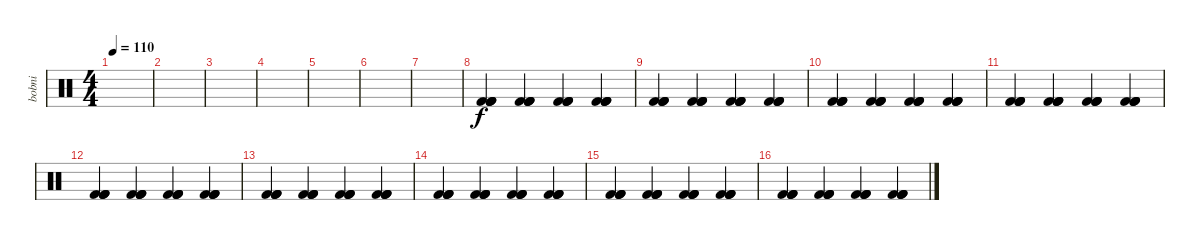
\track ("bobni" "bobni") {instrument percussion}
\staff {score}
\articulation defaults
\ts (4 4)
\tempo 110
\clef neutral
\ks c
|
|
|
|
|
|
|
("Kick (hit) 2" "Kick (hit) 2" "Kick (hit) 2" "Kick (hit) 2").4 ("Kick (hit) 2" "Kick (hit) 2" "Kick (hit) 2" "Kick (hit) 2").4 ("Kick (hit) 2" "Kick (hit) 2" "Kick (hit) 2" "Kick (hit) 2").4 ("Kick (hit) 2" "Kick (hit) 2" "Kick (hit) 2" "Kick (hit) 2").4 |
("Kick (hit) 2" "Kick (hit) 2" "Kick (hit) 2" "Kick (hit) 2").4 ("Kick (hit) 2" "Kick (hit) 2" "Kick (hit) 2" "Kick (hit) 2").4 ("Kick (hit) 2" "Kick (hit) 2" "Kick (hit) 2" "Kick (hit) 2").4 ("Kick (hit) 2" "Kick (hit) 2" "Kick (hit) 2" "Kick (hit) 2").4 |
("Kick (hit) 2" "Kick (hit) 2" "Kick (hit) 2" "Kick (hit) 2").4 ("Kick (hit) 2" "Kick (hit) 2" "Kick (hit) 2" "Kick (hit) 2").4 ("Kick (hit) 2" "Kick (hit) 2" "Kick (hit) 2" "Kick (hit) 2").4 ("Kick (hit) 2" "Kick (hit) 2" "Kick (hit) 2" "Kick (hit) 2").4 |
("Kick (hit) 2" "Kick (hit) 2" "Kick (hit) 2" "Kick (hit) 2").4 ("Kick (hit) 2" "Kick (hit) 2" "Kick (hit) 2" "Kick (hit) 2").4 ("Kick (hit) 2" "Kick (hit) 2" "Kick (hit) 2" "Kick (hit) 2").4 ("Kick (hit) 2" "Kick (hit) 2" "Kick (hit) 2" "Kick (hit) 2").4 |
("Kick (hit) 2" "Kick (hit) 2" "Kick (hit) 2" "Kick (hit) 2").4 ("Kick (hit) 2" "Kick (hit) 2" "Kick (hit) 2" "Kick (hit) 2").4 ("Kick (hit) 2" "Kick (hit) 2" "Kick (hit) 2" "Kick (hit) 2").4 ("Kick (hit) 2" "Kick (hit) 2" "Kick (hit) 2" "Kick (hit) 2").4 |
("Kick (hit) 2" "Kick (hit) 2" "Kick (hit) 2" "Kick (hit) 2").4 ("Kick (hit) 2" "Kick (hit) 2" "Kick (hit) 2" "Kick (hit) 2").4 ("Kick (hit) 2" "Kick (hit) 2" "Kick (hit) 2" "Kick (hit) 2").4 ("Kick (hit) 2" "Kick (hit) 2" "Kick (hit) 2" "Kick (hit) 2").4 |
("Kick (hit) 2" "Kick (hit) 2" "Kick (hit) 2" "Kick (hit) 2").4 ("Kick (hit) 2" "Kick (hit) 2" "Kick (hit) 2" "Kick (hit) 2").4 ("Kick (hit) 2" "Kick (hit) 2" "Kick (hit) 2" "Kick (hit) 2").4 ("Kick (hit) 2" "Kick (hit) 2" "Kick (hit) 2" "Kick (hit) 2").4 |
("Kick (hit) 2" "Kick (hit) 2" "Kick (hit) 2" "Kick (hit) 2").4 ("Kick (hit) 2" "Kick (hit) 2" "Kick (hit) 2" "Kick (hit) 2").4 ("Kick (hit) 2" "Kick (hit) 2" "Kick (hit) 2" "Kick (hit) 2").4 ("Kick (hit) 2" "Kick (hit) 2" "Kick (hit) 2" "Kick (hit) 2").4 |
("Kick (hit) 2" "Kick (hit) 2" "Kick (hit) 2" "Kick (hit) 2").4 ("Kick (hit) 2" "Kick (hit) 2" "Kick (hit) 2" "Kick (hit) 2").4 ("Kick (hit) 2" "Kick (hit) 2" "Kick (hit) 2" "Kick (hit) 2").4 ("Kick (hit) 2" "Kick (hit) 2" "Kick (hit) 2" "Kick (hit) 2").4
